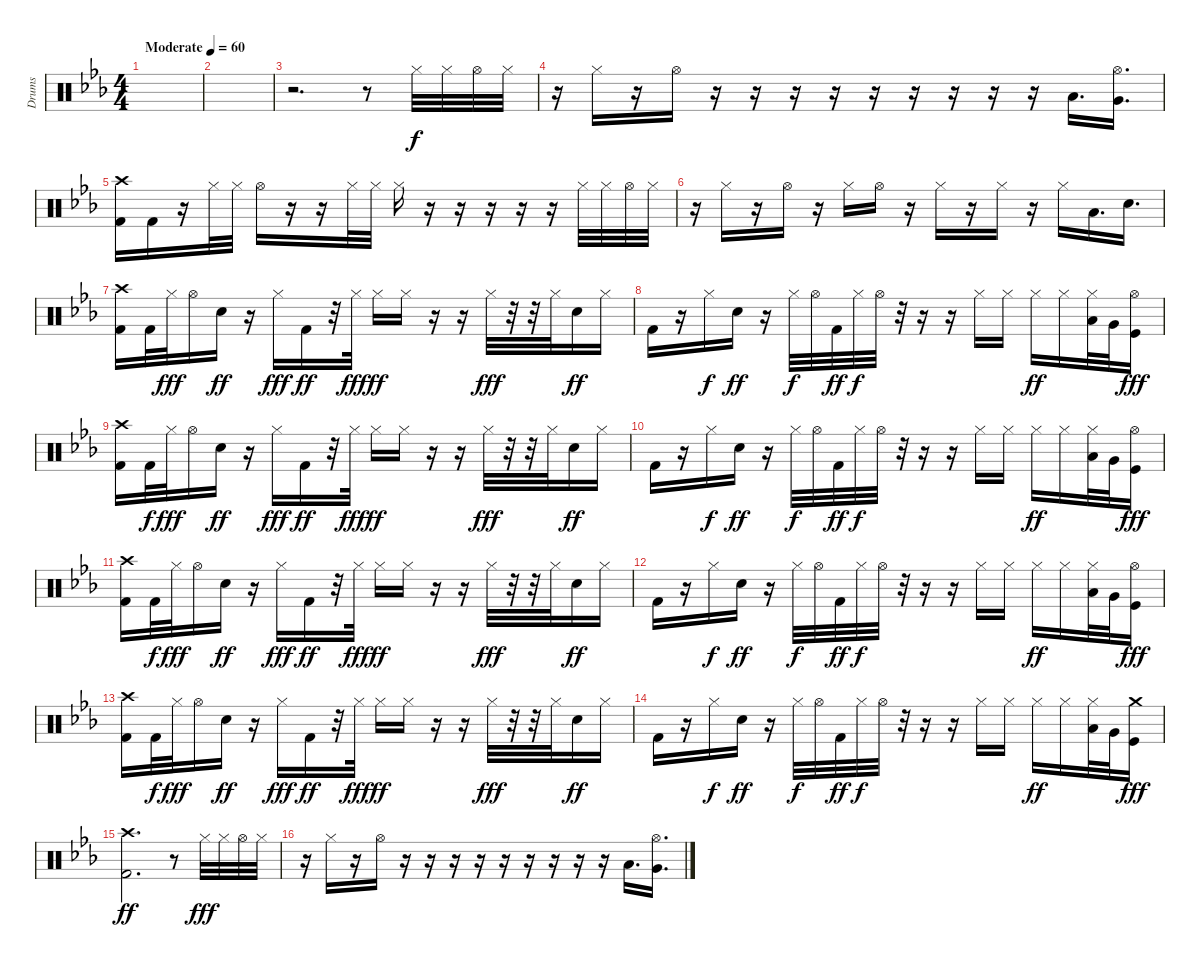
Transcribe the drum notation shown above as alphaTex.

\track ("Drums" "Drums") {instrument percussion}
\staff {score}
\articulation defaults
\ts (4 4)
\tempo (60 "Moderate")
\clef neutral
\ks eb
|
|
r.2{d} r.8 "Hi-Hat (closed)".32 "Hi-Hat (closed)".32 "Hi-Hat (open)".32 "Hi-Hat (closed)".32 |
r.16 "Hi-Hat (closed)".16 r.16 "Hi-Hat (open)".16 r.16 r.16 r.16 r.16 r.16 r.16 r.16 r.16 r.16 "Low Tom (hit)".16{d} ("Hi-Hat (open)" "Very Low Tom (hit)").16{d} |
("Crash high (hit)" "Kick (hit) 2").16 "Kick (hit) 2".16 r.16 "Hi-Hat (closed)".32 "Hi-Hat (closed)".32 "Hi-Hat (open)".16 r.16 r.16 "Hi-Hat (closed)".32 "Hi-Hat (closed)".32 "Hi-Hat (closed)".16 r.16 r.16 r.16 r.16 r.16 "Hi-Hat (closed)".32 "Hi-Hat (closed)".32 "Hi-Hat (open)".32 "Hi-Hat (closed)".32 |
r.16 "Hi-Hat (closed)".16 r.16 "Hi-Hat (open)".16 r.16 "Hi-Hat (closed)".16 "Hi-Hat (open)".16 r.16 "Hi-Hat (closed)".16 r.16 "Hi-Hat (closed)".16 r.16 "Hi-Hat (closed)".16 "Low Tom (hit)".16{d} "Electric Snare (hit)".16{d} |
("Crash high (hit)" "Kick (hit) 2").16 "Kick (hit) 2".32{dy f} "Hi-Hat (closed)".32{dy fff} "Hi-Hat (open)".16 "Electric Snare (hit)".16{dy ff} r.16 "Hi-Hat (closed)".16{dy fff} "Kick (hit) 2".16{dy ff} r.32 "Hi-Hat (closed)".32{dy fff} "Hi-Hat (closed)".16{dy ff} "Hi-Hat (closed)".16 r.16 r.16 "Hi-Hat (closed)".32{dy fff} r.32 r.32 "Hi-Hat (closed)".32 "Electric Snare (hit)".16{dy ff} "Hi-Hat (closed)".16 |
"Kick (hit) 2".16 r.16 "Hi-Hat (closed)".16{dy f} "Electric Snare (hit)".16{dy ff} r.16 "Hi-Hat (closed)".32{dy f} "Hi-Hat (open)".32 "Kick (hit) 2".32{dy ff} "Hi-Hat (closed)".32{dy f} "Hi-Hat (open)".32 r.32 r.16 r.16 "Hi-Hat (closed)".16 "Hi-Hat (closed)".16 "Hi-Hat (closed)".16{dy ff} "Hi-Hat (closed)".16 ("Hi-Hat (closed)" "Low Tom (hit)").32 "Very Low Tom (hit)".32 ("Hi-Hat (open)" "Kick (hit)").16{dy fff} |
("Crash high (hit)" "Kick (hit) 2").16 "Kick (hit) 2".32{dy f} "Hi-Hat (closed)".32{dy fff} "Hi-Hat (open)".16 "Electric Snare (hit)".16{dy ff} r.16 "Hi-Hat (closed)".16{dy fff} "Kick (hit) 2".16{dy ff} r.32 "Hi-Hat (closed)".32{dy fff} "Hi-Hat (closed)".16{dy ff} "Hi-Hat (closed)".16 r.16 r.16 "Hi-Hat (closed)".32{dy fff} r.32 r.32 "Hi-Hat (closed)".32 "Electric Snare (hit)".16{dy ff} "Hi-Hat (closed)".16 |
"Kick (hit) 2".16 r.16 "Hi-Hat (closed)".16{dy f} "Electric Snare (hit)".16{dy ff} r.16 "Hi-Hat (closed)".32{dy f} "Hi-Hat (open)".32 "Kick (hit) 2".32{dy ff} "Hi-Hat (closed)".32{dy f} "Hi-Hat (open)".32 r.32 r.16 r.16 "Hi-Hat (closed)".16 "Hi-Hat (closed)".16 "Hi-Hat (closed)".16{dy ff} "Hi-Hat (closed)".16 ("Hi-Hat (closed)" "Low Tom (hit)").32 "Very Low Tom (hit)".32 ("Hi-Hat (open)" "Kick (hit)").16{dy fff} |
("Crash high (hit)" "Kick (hit) 2").16 "Kick (hit) 2".32{dy f} "Hi-Hat (closed)".32{dy fff} "Hi-Hat (open)".16 "Electric Snare (hit)".16{dy ff} r.16 "Hi-Hat (closed)".16{dy fff} "Kick (hit) 2".16{dy ff} r.32 "Hi-Hat (closed)".32{dy fff} "Hi-Hat (closed)".16{dy ff} "Hi-Hat (closed)".16 r.16 r.16 "Hi-Hat (closed)".32{dy fff} r.32 r.32 "Hi-Hat (closed)".32 "Electric Snare (hit)".16{dy ff} "Hi-Hat (closed)".16 |
"Kick (hit) 2".16 r.16 "Hi-Hat (closed)".16{dy f} "Electric Snare (hit)".16{dy ff} r.16 "Hi-Hat (closed)".32{dy f} "Hi-Hat (open)".32 "Kick (hit) 2".32{dy ff} "Hi-Hat (closed)".32{dy f} "Hi-Hat (open)".32 r.32 r.16 r.16 "Hi-Hat (closed)".16 "Hi-Hat (closed)".16 "Hi-Hat (closed)".16{dy ff} "Hi-Hat (closed)".16 ("Hi-Hat (closed)" "Low Tom (hit)").32 "Very Low Tom (hit)".32 ("Hi-Hat (open)" "Kick (hit)").16{dy fff} |
("Crash high (hit)" "Kick (hit) 2").16 "Kick (hit) 2".32{dy f} "Hi-Hat (closed)".32{dy fff} "Hi-Hat (open)".16 "Electric Snare (hit)".16{dy ff} r.16 "Hi-Hat (closed)".16{dy fff} "Kick (hit) 2".16{dy ff} r.32 "Hi-Hat (closed)".32{dy fff} "Hi-Hat (closed)".16{dy ff} "Hi-Hat (closed)".16 r.16 r.16 "Hi-Hat (closed)".32{dy fff} r.32 r.32 "Hi-Hat (closed)".32 "Electric Snare (hit)".16{dy ff} "Hi-Hat (closed)".16 |
"Kick (hit) 2".16 r.16 "Hi-Hat (closed)".16{dy f} "Electric Snare (hit)".16{dy ff} r.16 "Hi-Hat (closed)".32{dy f} "Hi-Hat (open)".32 "Kick (hit) 2".32{dy ff} "Hi-Hat (closed)".32{dy f} "Hi-Hat (open)".32 r.32 r.16 r.16 "Hi-Hat (closed)".16 "Hi-Hat (closed)".16 "Hi-Hat (closed)".16{dy ff} "Hi-Hat (closed)".16 ("Hi-Hat (closed)" "Low Tom (hit)").32 "Very Low Tom (hit)".32 ("Crash medium (hit)" "Kick (hit)").16{dy fff} |
("Crash high (hit)" "Kick (hit) 2").2{d dy ff} r.8 "Hi-Hat (closed)".32{dy fff} "Hi-Hat (closed)".32 "Hi-Hat (open)".32 "Hi-Hat (closed)".32 |
r.16 "Hi-Hat (closed)".16 r.16 "Hi-Hat (open)".16 r.16 r.16 r.16 r.16 r.16 r.16 r.16 r.16 r.16 "Low Tom (hit)".16{d} ("Hi-Hat (open)" "Very Low Tom (hit)").16{d}
